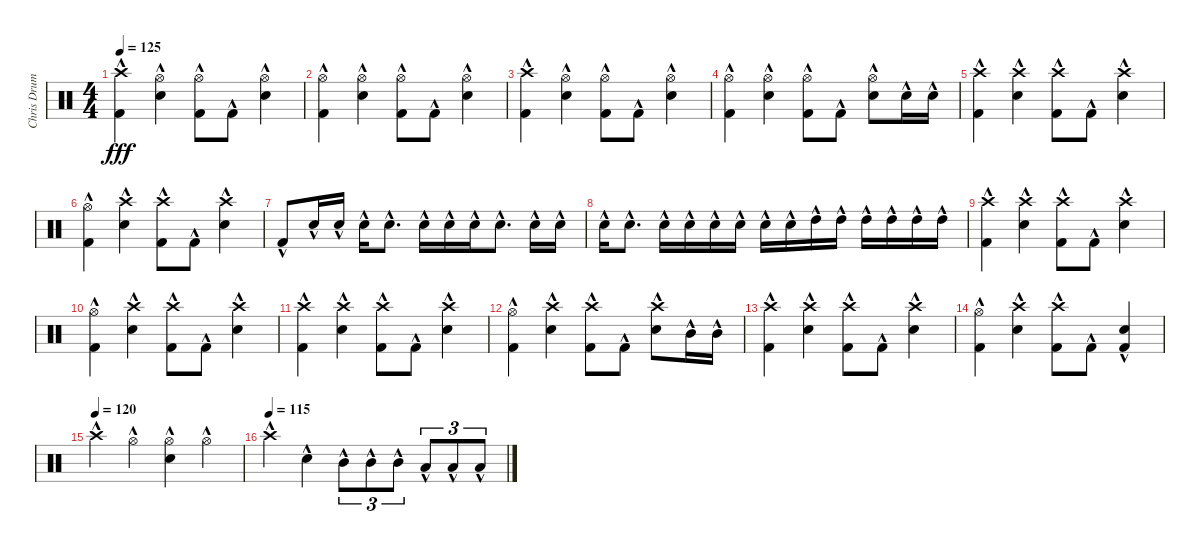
\track ("Chris Drums" "Chris Drum") {instrument percussion}
\staff {score}
\articulation defaults
\ts (4 4)
\tempo 125
\clef neutral
\ks c
("Crash high (hit)" "Kick (hit) 2"{hac}).4{dy fff} ("Hi-Hat (open)" "Snare (hit) 2"{hac}).4 ("Hi-Hat (open)" "Kick (hit) 2"{hac}).8 "Kick (hit) 2"{hac}.8 ("Hi-Hat (open)" "Snare (hit) 2"{hac}).4 |
("Hi-Hat (open)" "Kick (hit) 2"{hac}).4 ("Hi-Hat (open)" "Snare (hit) 2"{hac}).4 ("Hi-Hat (open)" "Kick (hit) 2"{hac}).8 "Kick (hit) 2"{hac}.8 ("Hi-Hat (open)" "Snare (hit) 2"{hac}).4 |
("Crash high (hit)" "Kick (hit) 2"{hac}).4 ("Hi-Hat (open)" "Snare (hit) 2"{hac}).4 ("Hi-Hat (open)" "Kick (hit) 2"{hac}).8 "Kick (hit) 2"{hac}.8 ("Hi-Hat (open)" "Snare (hit) 2"{hac}).4 |
("Hi-Hat (open)" "Kick (hit) 2"{hac}).4 ("Hi-Hat (open)" "Snare (hit) 2"{hac}).4 ("Hi-Hat (open)" "Kick (hit) 2"{hac}).8 "Kick (hit) 2"{hac}.8 ("Hi-Hat (open)" "Snare (hit) 2"{hac}).8 "Snare (hit) 2"{hac}.16 "Snare (hit) 2"{hac}.16 |
("Crash high (hit)" "Kick (hit) 2"{hac}).4 ("Crash high (hit)" "Snare (hit) 2"{hac}).4 ("Crash high (hit)" "Kick (hit) 2"{hac}).8 "Kick (hit) 2"{hac}.8 ("Crash high (hit)" "Snare (hit) 2"{hac}).4 |
("Hi-Hat (open)" "Kick (hit) 2"{hac}).4 ("Crash high (hit)" "Snare (hit) 2"{hac}).4 ("Crash high (hit)" "Kick (hit) 2"{hac}).8 "Kick (hit) 2"{hac}.8 ("Crash high (hit)" "Snare (hit) 2"{hac}).4 |
"Kick (hit) 2"{hac}.8 "Snare (hit) 2"{hac}.16 "Snare (hit) 2"{hac}.16 "Snare (hit) 2"{hac}.16 "Snare (hit) 2"{hac}.8{d} "Snare (hit) 2"{hac}.16 "Snare (hit) 2"{hac}.16 "Snare (hit) 2"{hac}.16 "Snare (hit) 2"{hac}.8{d} "Snare (hit) 2"{hac}.16 "Snare (hit) 2"{hac}.16 |
"Snare (hit) 2"{hac}.16 "Snare (hit) 2"{hac}.8{d} "Snare (hit) 2"{hac}.16 "Snare (hit) 2"{hac}.16 "Snare (hit) 2"{hac}.16 "Snare (hit) 2"{hac}.16 "Snare (hit) 2"{hac}.16 "Snare (hit) 2"{hac}.16 "High Tom (hit)"{hac}.16 "High Tom (hit)"{hac}.16 "High Tom (hit)"{hac}.16 "High Tom (hit)"{hac}.16 "High Tom (hit)"{hac}.16 "High Tom (hit)"{hac}.16 |
("Crash high (hit)" "Kick (hit) 2"{hac}).4 ("Crash high (hit)" "Snare (hit) 2"{hac}).4 ("Crash high (hit)" "Kick (hit) 2"{hac}).8 "Kick (hit) 2"{hac}.8 ("Crash high (hit)" "Snare (hit) 2"{hac}).4 |
("Hi-Hat (open)" "Kick (hit) 2"{hac}).4 ("Crash high (hit)" "Snare (hit) 2"{hac}).4 ("Crash high (hit)" "Kick (hit) 2"{hac}).8 "Kick (hit) 2"{hac}.8 ("Crash high (hit)" "Snare (hit) 2"{hac}).4 |
("Crash high (hit)" "Kick (hit) 2"{hac}).4 ("Crash high (hit)" "Snare (hit) 2"{hac}).4 ("Crash high (hit)" "Kick (hit) 2"{hac}).8 "Kick (hit) 2"{hac}.8 ("Crash high (hit)" "Snare (hit) 2"{hac}).4 |
("Hi-Hat (open)" "Kick (hit) 2"{hac}).4 ("Crash high (hit)" "Snare (hit) 2"{hac}).4 ("Crash high (hit)" "Kick (hit) 2"{hac}).8 "Kick (hit) 2"{hac}.8 ("Crash high (hit)" "Snare (hit) 2"{hac}).8 "Mid Tom (hit)"{hac}.16 "Mid Tom (hit)"{hac}.16 |
("Crash high (hit)" "Kick (hit) 2"{hac}).4 ("Crash high (hit)" "Snare (hit) 2"{hac}).4 ("Crash high (hit)" "Kick (hit) 2"{hac}).8 "Kick (hit) 2"{hac}.8 ("Crash high (hit)" "Snare (hit) 2"{hac}).4 |
("Hi-Hat (open)" "Kick (hit) 2"{hac}).4 ("Crash high (hit)" "Snare (hit) 2"{hac}).4 ("Crash high (hit)" "Kick (hit) 2"{hac}).8 "Kick (hit) 2"{hac}.8 ("Snare (hit) 2"{hac} "Kick (hit) 2"{hac}).4 |
\tempo (120)
"Crash high (hit)"{hac}.4 "Hi-Hat (open)"{hac}.4 ("Hi-Hat (open)"{hac} "Snare (hit) 2"{hac}).4 "Hi-Hat (open)"{hac}.4 |
\tempo (115)
"Crash high (hit)"{hac}.4 "Snare (hit) 2"{hac}.4 "Mid Tom (hit)"{hac}.8{tu (3 2)} "Mid Tom (hit)"{hac}.8{tu (3 2)} "Mid Tom (hit)"{hac}.8{tu (3 2)} "Low Tom (hit)"{hac}.8{tu (3 2)} "Low Tom (hit)"{hac}.8{tu (3 2)} "Low Tom (hit)"{hac}.8{tu (3 2)}
